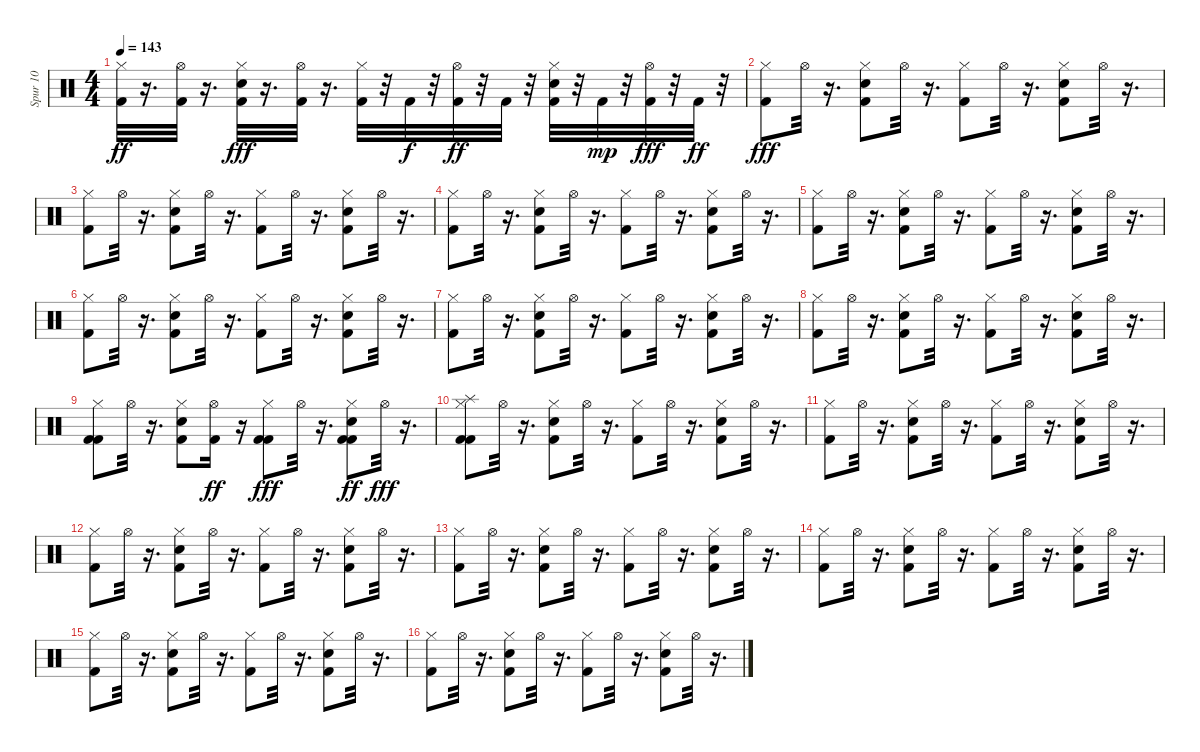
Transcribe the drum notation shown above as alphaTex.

\track ("Spur 10" "Spur 10") {instrument percussion}
\staff {score}
\articulation defaults
\ts (4 4)
\tempo 143
\clef neutral
\ks c
("Hi-Hat (closed)" "Kick (hit) 2").32{dy ff} r.16{d} ("Hi-Hat (open)" "Kick (hit) 2").32 r.16{d} ("Hi-Hat (closed)" "Hand Clap (hit)" "Kick (hit) 2").32{dy fff} r.16{d} ("Hi-Hat (open)" "Kick (hit) 2").32 r.16{d} ("Hi-Hat (closed)" "Kick (hit) 2").32 r.32 "Kick (hit) 2".32{dy f} r.32 ("Hi-Hat (open)" "Kick (hit) 2").32{dy ff} r.32 "Kick (hit) 2".32 r.32 ("Hi-Hat (closed)" "Hand Clap (hit)" "Kick (hit) 2").32 r.32 "Kick (hit) 2".32{dy mp} r.32 ("Hi-Hat (open)" "Kick (hit) 2").32{dy fff} r.32 "Kick (hit) 2".32{dy ff} r.32 |
("Hi-Hat (closed)" "Kick (hit) 2").8{dy fff} "Hi-Hat (open)".32 r.16{d} ("Hi-Hat (closed)" "Electric Snare (hit)" "Kick (hit) 2").8 "Hi-Hat (open)".32 r.16{d} ("Hi-Hat (closed)" "Kick (hit) 2").8 "Hi-Hat (open)".32 r.16{d} ("Hi-Hat (closed)" "Electric Snare (hit)" "Kick (hit) 2").8 "Hi-Hat (open)".32 r.16{d} |
("Hi-Hat (closed)" "Kick (hit) 2").8 "Hi-Hat (open)".32 r.16{d} ("Hi-Hat (closed)" "Electric Snare (hit)" "Kick (hit) 2").8 "Hi-Hat (open)".32 r.16{d} ("Hi-Hat (closed)" "Kick (hit) 2").8 "Hi-Hat (open)".32 r.16{d} ("Hi-Hat (closed)" "Electric Snare (hit)" "Kick (hit) 2").8 "Hi-Hat (open)".32 r.16{d} |
("Hi-Hat (closed)" "Kick (hit) 2").8 "Hi-Hat (open)".32 r.16{d} ("Hi-Hat (closed)" "Electric Snare (hit)" "Kick (hit) 2").8 "Hi-Hat (open)".32 r.16{d} ("Hi-Hat (closed)" "Kick (hit) 2").8 "Hi-Hat (open)".32 r.16{d} ("Hi-Hat (closed)" "Electric Snare (hit)" "Kick (hit) 2").8 "Hi-Hat (open)".32 r.16{d} |
("Hi-Hat (closed)" "Kick (hit) 2").8 "Hi-Hat (open)".32 r.16{d} ("Hi-Hat (closed)" "Electric Snare (hit)" "Kick (hit) 2").8 "Hi-Hat (open)".32 r.16{d} ("Hi-Hat (closed)" "Kick (hit) 2").8 "Hi-Hat (open)".32 r.16{d} ("Hi-Hat (closed)" "Electric Snare (hit)" "Kick (hit) 2").8 "Hi-Hat (open)".32 r.16{d} |
("Hi-Hat (closed)" "Kick (hit) 2").8 "Hi-Hat (open)".32 r.16{d} ("Hi-Hat (closed)" "Electric Snare (hit)" "Kick (hit) 2").8 "Hi-Hat (open)".32 r.16{d} ("Hi-Hat (closed)" "Kick (hit) 2").8 "Hi-Hat (open)".32 r.16{d} ("Hi-Hat (closed)" "Electric Snare (hit)" "Kick (hit) 2").8 "Hi-Hat (open)".32 r.16{d} |
("Hi-Hat (closed)" "Kick (hit) 2").8 "Hi-Hat (open)".32 r.16{d} ("Hi-Hat (closed)" "Electric Snare (hit)" "Kick (hit) 2").8 "Hi-Hat (open)".32 r.16{d} ("Hi-Hat (closed)" "Kick (hit) 2").8 "Hi-Hat (open)".32 r.16{d} ("Hi-Hat (closed)" "Electric Snare (hit)" "Kick (hit) 2").8 "Hi-Hat (open)".32 r.16{d} |
("Hi-Hat (closed)" "Kick (hit) 2").8 "Hi-Hat (open)".32 r.16{d} ("Hi-Hat (closed)" "Electric Snare (hit)" "Kick (hit) 2").8 "Hi-Hat (open)".32 r.16{d} ("Hi-Hat (closed)" "Kick (hit) 2").8 "Hi-Hat (open)".32 r.16{d} ("Hi-Hat (closed)" "Electric Snare (hit)" "Kick (hit) 2").8 "Hi-Hat (open)".32 r.16{d} |
("Hi-Hat (closed)" "Kick (hit) 2" "Kick (hit) 2").8 "Hi-Hat (open)".32 r.16{d} ("Hi-Hat (closed)" "Electric Snare (hit)" "Kick (hit) 2").8 ("Hi-Hat (open)" "Kick (hit) 2").16{dy ff} r.16 ("Hi-Hat (closed)" "Kick (hit) 2" "Kick (hit) 2").8{dy fff} "Hi-Hat (open)".32 r.16{d} ("Hi-Hat (closed)" "Electric Snare (hit)" "Kick (hit) 2" "Kick (hit) 2").8{dy ff} "Hi-Hat (open)".32{dy fff} r.16{d} |
("Hi-Hat (closed)" "Kick (hit) 2" "Kick (hit) 2" "Splash (hit)").8 "Hi-Hat (open)".32 r.16{d} ("Hi-Hat (closed)" "Electric Snare (hit)" "Kick (hit) 2").8 "Hi-Hat (open)".32 r.16{d} ("Hi-Hat (closed)" "Kick (hit) 2").8 "Hi-Hat (open)".32 r.16{d} ("Hi-Hat (closed)" "Electric Snare (hit)" "Kick (hit) 2").8 "Hi-Hat (open)".32 r.16{d} |
("Hi-Hat (closed)" "Kick (hit) 2").8 "Hi-Hat (open)".32 r.16{d} ("Hi-Hat (closed)" "Electric Snare (hit)" "Kick (hit) 2").8 "Hi-Hat (open)".32 r.16{d} ("Hi-Hat (closed)" "Kick (hit) 2").8 "Hi-Hat (open)".32 r.16{d} ("Hi-Hat (closed)" "Electric Snare (hit)" "Kick (hit) 2").8 "Hi-Hat (open)".32 r.16{d} |
("Hi-Hat (closed)" "Kick (hit) 2").8 "Hi-Hat (open)".32 r.16{d} ("Hi-Hat (closed)" "Electric Snare (hit)" "Kick (hit) 2").8 "Hi-Hat (open)".32 r.16{d} ("Hi-Hat (closed)" "Kick (hit) 2").8 "Hi-Hat (open)".32 r.16{d} ("Hi-Hat (closed)" "Electric Snare (hit)" "Kick (hit) 2").8 "Hi-Hat (open)".32 r.16{d} |
("Hi-Hat (closed)" "Kick (hit) 2").8 "Hi-Hat (open)".32 r.16{d} ("Hi-Hat (closed)" "Electric Snare (hit)" "Kick (hit) 2").8 "Hi-Hat (open)".32 r.16{d} ("Hi-Hat (closed)" "Kick (hit) 2").8 "Hi-Hat (open)".32 r.16{d} ("Hi-Hat (closed)" "Electric Snare (hit)" "Kick (hit) 2").8 "Hi-Hat (open)".32 r.16{d} |
("Hi-Hat (closed)" "Kick (hit) 2").8 "Hi-Hat (open)".32 r.16{d} ("Hi-Hat (closed)" "Electric Snare (hit)" "Kick (hit) 2").8 "Hi-Hat (open)".32 r.16{d} ("Hi-Hat (closed)" "Kick (hit) 2").8 "Hi-Hat (open)".32 r.16{d} ("Hi-Hat (closed)" "Electric Snare (hit)" "Kick (hit) 2").8 "Hi-Hat (open)".32 r.16{d} |
("Hi-Hat (closed)" "Kick (hit) 2").8 "Hi-Hat (open)".32 r.16{d} ("Hi-Hat (closed)" "Electric Snare (hit)" "Kick (hit) 2").8 "Hi-Hat (open)".32 r.16{d} ("Hi-Hat (closed)" "Kick (hit) 2").8 "Hi-Hat (open)".32 r.16{d} ("Hi-Hat (closed)" "Electric Snare (hit)" "Kick (hit) 2").8 "Hi-Hat (open)".32 r.16{d} |
("Hi-Hat (closed)" "Kick (hit) 2").8 "Hi-Hat (open)".32 r.16{d} ("Hi-Hat (closed)" "Electric Snare (hit)" "Kick (hit) 2").8 "Hi-Hat (open)".32 r.16{d} ("Hi-Hat (closed)" "Kick (hit) 2").8 "Hi-Hat (open)".32 r.16{d} ("Hi-Hat (closed)" "Electric Snare (hit)" "Kick (hit) 2").8 "Hi-Hat (open)".32 r.16{d}
